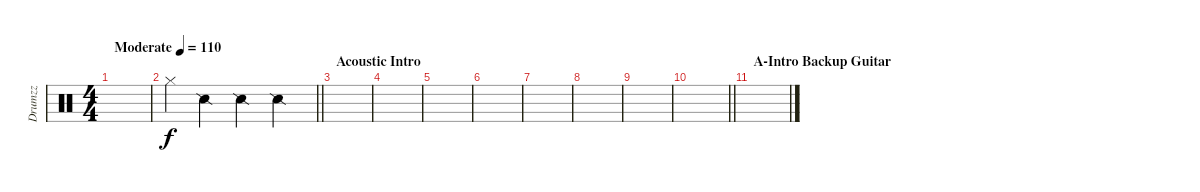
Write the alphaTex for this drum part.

\track ("Drumzz" "Drumzz") {instrument percussion}
\staff {score}
\articulation defaults
\ts (4 4)
\tempo (110 "Moderate")
\clef neutral
\ks c
|
\barLineRight lightlight "Hi-Hat (closed)".4 "Snare (side stick) 2".4 "Snare (side stick) 2".4 "Snare (side stick) 2".4
|
\section ("" "Acoustic Intro")
|
|
|
|
|
|
|
\barLineRight lightlight
|
\section ("" "A-Intro Backup Guitar")
